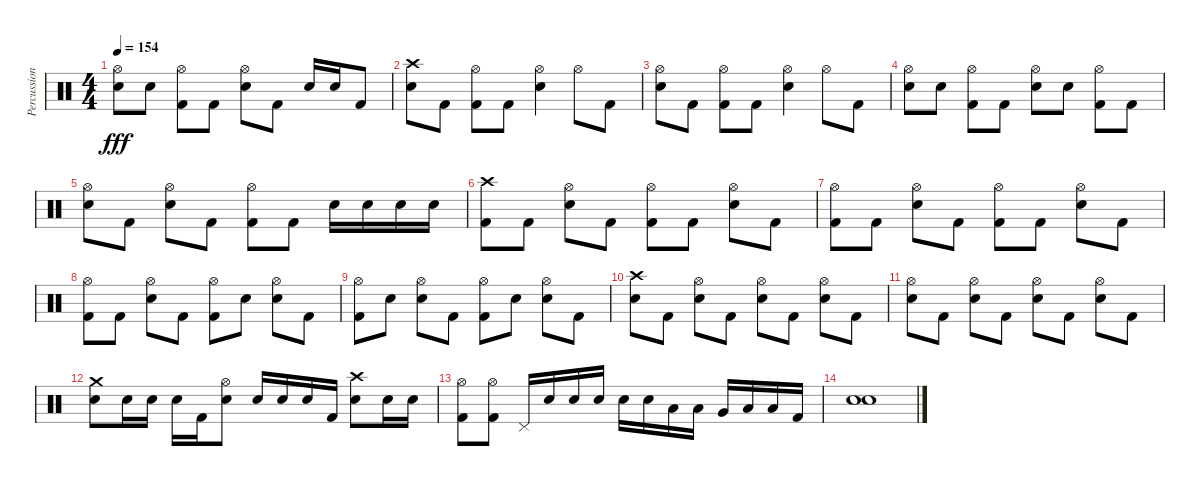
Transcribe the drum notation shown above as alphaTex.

\track ("Percussion" "Percussion") {instrument percussion}
\staff {score}
\articulation defaults
\ts (4 4)
\tempo 154
\clef neutral
\ks c
("Hi-Hat (open)" "Electric Snare (hit)").8{dy fff} "Electric Snare (hit)".8 ("Hi-Hat (open)" "Kick (hit) 2").8 "Kick (hit) 2".8 ("Hi-Hat (open)" "Electric Snare (hit)").8 "Kick (hit) 2".8 "Electric Snare (hit)".16 "Electric Snare (hit)".16 "Kick (hit) 2".8 |
("Crash high (hit)" "Electric Snare (hit)").8 "Kick (hit) 2".8 ("Hi-Hat (open)" "Kick (hit) 2").8 "Kick (hit) 2".8 ("Hi-Hat (open)" "Electric Snare (hit)").4 "Hi-Hat (open)".8 "Kick (hit) 2".8 |
("Hi-Hat (open)" "Electric Snare (hit)").8 "Kick (hit) 2".8 ("Hi-Hat (open)" "Kick (hit) 2").8 "Kick (hit) 2".8 ("Hi-Hat (open)" "Electric Snare (hit)").4 "Hi-Hat (open)".8 "Kick (hit) 2".8 |
("Hi-Hat (open)" "Electric Snare (hit)").8 "Electric Snare (hit)".8 ("Hi-Hat (open)" "Kick (hit) 2").8 "Kick (hit) 2".8 ("Hi-Hat (open)" "Electric Snare (hit)").8 "Electric Snare (hit)".8 ("Hi-Hat (open)" "Kick (hit) 2").8 "Kick (hit) 2".8 |
("Hi-Hat (open)" "Electric Snare (hit)").8 "Kick (hit) 2".8 ("Hi-Hat (open)" "Electric Snare (hit)").8 "Kick (hit) 2".8 ("Hi-Hat (open)" "Kick (hit) 2").8 "Kick (hit) 2".8 "Electric Snare (hit)".16 "Electric Snare (hit)".16 "Electric Snare (hit)".16 "Electric Snare (hit)".16 |
("Crash high (hit)" "Kick (hit) 2").8 "Kick (hit) 2".8 ("Hi-Hat (open)" "Electric Snare (hit)").8 "Kick (hit) 2".8 ("Hi-Hat (open)" "Kick (hit) 2").8 "Kick (hit) 2".8 ("Hi-Hat (open)" "Electric Snare (hit)").8 "Kick (hit) 2".8 |
("Hi-Hat (open)" "Kick (hit) 2").8 "Kick (hit) 2".8 ("Hi-Hat (open)" "Electric Snare (hit)").8 "Kick (hit) 2".8 ("Hi-Hat (open)" "Kick (hit) 2").8 "Kick (hit) 2".8 ("Hi-Hat (open)" "Electric Snare (hit)").8 "Kick (hit) 2".8 |
("Hi-Hat (open)" "Kick (hit) 2").8 "Kick (hit) 2".8 ("Hi-Hat (open)" "Electric Snare (hit)").8 "Kick (hit) 2".8 ("Hi-Hat (open)" "Kick (hit) 2").8 "Electric Snare (hit)".8 ("Hi-Hat (open)" "Electric Snare (hit)").8 "Kick (hit) 2".8 |
("Hi-Hat (open)" "Kick (hit) 2").8 "Electric Snare (hit)".8 ("Hi-Hat (open)" "Electric Snare (hit)").8 "Kick (hit) 2".8 ("Hi-Hat (open)" "Kick (hit) 2").8 "Electric Snare (hit)".8 ("Hi-Hat (open)" "Electric Snare (hit)").8 "Kick (hit) 2".8 |
("Crash high (hit)" "Electric Snare (hit)").8 "Kick (hit) 2".8 ("Hi-Hat (open)" "Electric Snare (hit)").8 "Kick (hit) 2".8 ("Hi-Hat (open)" "Electric Snare (hit)").8 "Kick (hit) 2".8 ("Hi-Hat (open)" "Electric Snare (hit)").8 "Kick (hit) 2".8 |
("Hi-Hat (open)" "Electric Snare (hit)").8 "Kick (hit) 2".8 ("Hi-Hat (open)" "Electric Snare (hit)").8 "Kick (hit) 2".8 ("Hi-Hat (open)" "Electric Snare (hit)").8 "Kick (hit) 2".8 ("Hi-Hat (open)" "Electric Snare (hit)").8 "Kick (hit) 2".8 |
("Crash medium (hit)" "Electric Snare (hit)").8 "Electric Snare (hit)".16 "Electric Snare (hit)".16 "Electric Snare (hit)".16 "Kick (hit) 2".16 ("Hi-Hat (open)" "Electric Snare (hit)").8 "Electric Snare (hit)".16 "Electric Snare (hit)".16 "Electric Snare (hit)".16 "Kick (hit) 2".16 ("Crash high (hit)" "Electric Snare (hit)").8 "Electric Snare (hit)".16 "Electric Snare (hit)".16 |
("Hi-Hat (open)" "Kick (hit) 2").8 ("Hi-Hat (open)" "Kick (hit) 2").8 "Pedal Hi-Hat (hit)".16 "Electric Snare (hit)".16 "Electric Snare (hit)".16 "Electric Snare (hit)".16 "Electric Snare (hit)".16 "Electric Snare (hit)".16 "Low Tom (hit)".16 "Low Tom (hit)".16 "Very Low Tom (hit)".16 "Low Floor Tom (hit)".16 "Low Floor Tom (hit)".16 "Kick (hit) 2".16 |
("Electric Snare (hit)" "Electric Snare (hit)").1{bd 120}
